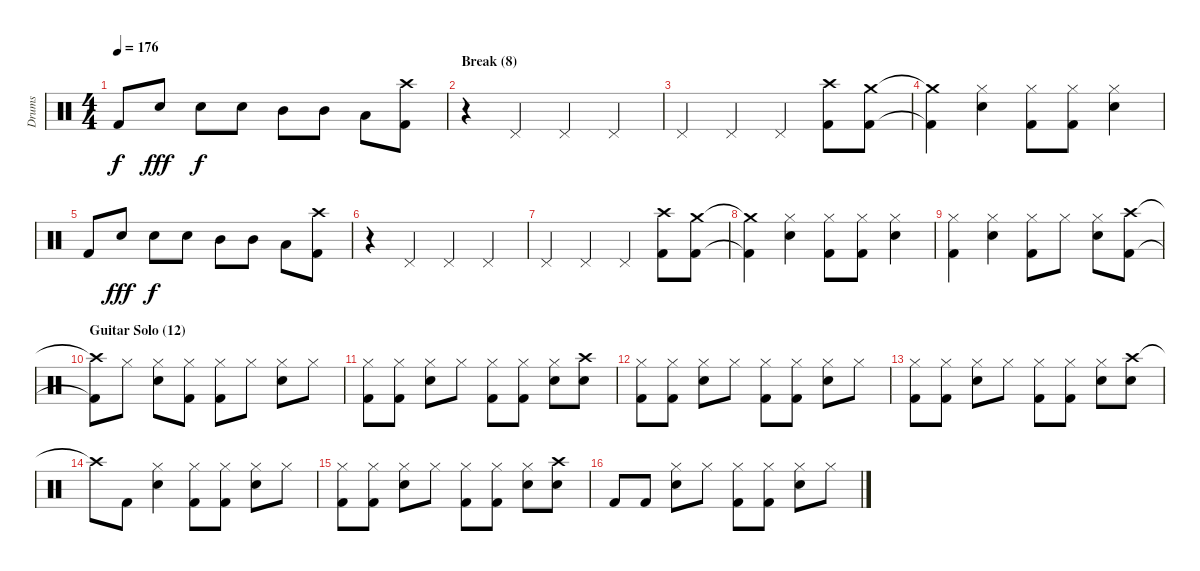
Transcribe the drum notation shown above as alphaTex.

\track ("Drums" "Drums") {instrument percussion}
\staff {score}
\articulation defaults
\ts (4 4)
\tempo 176
\clef neutral
\ks c "Kick (hit) 2".8{dy f} "Snare (hit) 2".8{dy fff} "Snare (hit) 2".8{dy f} "Snare (hit) 2".8 "Mid Tom (hit)".8 "Mid Tom (hit)".8 "Low Tom (hit)".8
("Crash high (hit)" "Kick (hit) 2").8 |
\section ("" "Break (8)")
r.4 "Pedal Hi-Hat (hit)".4 "Pedal Hi-Hat (hit)".4 "Pedal Hi-Hat (hit)".4 |
"Pedal Hi-Hat (hit)".4 "Pedal Hi-Hat (hit)".4 "Pedal Hi-Hat (hit)".4 ("Crash high (hit)" "Kick (hit) 2").8 ("Crash medium (hit)" "Kick (hit) 2").8 |
("Crash medium (hit)"{t} "Kick (hit) 2"{t}).4 ("Hi-Hat (closed)" "Snare (hit) 2").4 ("Hi-Hat (closed)" "Kick (hit) 2").8 ("Hi-Hat (closed)" "Kick (hit) 2").8 ("Hi-Hat (closed)" "Snare (hit) 2").4 |
"Kick (hit) 2".8 "Snare (hit) 2".8{dy fff} "Snare (hit) 2".8{dy f} "Snare (hit) 2".8 "Mid Tom (hit)".8 "Mid Tom (hit)".8 "Low Tom (hit)".8 ("Crash high (hit)" "Kick (hit) 2").8 |
r.4 "Pedal Hi-Hat (hit)".4 "Pedal Hi-Hat (hit)".4 "Pedal Hi-Hat (hit)".4 |
"Pedal Hi-Hat (hit)".4 "Pedal Hi-Hat (hit)".4 "Pedal Hi-Hat (hit)".4 ("Crash high (hit)" "Kick (hit) 2").8 ("Crash medium (hit)" "Kick (hit) 2").8 |
("Crash medium (hit)"{t} "Kick (hit) 2"{t}).4 ("Hi-Hat (closed)" "Snare (hit) 2").4 ("Hi-Hat (closed)" "Kick (hit) 2").8 ("Hi-Hat (closed)" "Kick (hit) 2").8 ("Hi-Hat (closed)" "Snare (hit) 2").4 |
("Hi-Hat (closed)" "Kick (hit) 2").4 ("Hi-Hat (closed)" "Snare (hit) 2").4 ("Hi-Hat (closed)" "Kick (hit) 2").8 "Hi-Hat (closed)".8 ("Hi-Hat (closed)" "Snare (hit) 2").8 ("Crash high (hit)" "Kick (hit) 2").8 |
\section ("" "Guitar Solo (12)")
("Crash high (hit)"{t} "Kick (hit) 2"{t}).8 "Hi-Hat (closed)".8 ("Hi-Hat (closed)" "Snare (hit) 2").8 ("Hi-Hat (closed)" "Kick (hit) 2").8 ("Hi-Hat (closed)" "Kick (hit) 2").8 "Hi-Hat (closed)".8 ("Hi-Hat (closed)" "Snare (hit) 2").8 "Hi-Hat (closed)".8 |
("Hi-Hat (closed)" "Kick (hit) 2").8 ("Hi-Hat (closed)" "Kick (hit) 2").8 ("Hi-Hat (closed)" "Snare (hit) 2").8 "Hi-Hat (closed)".8 ("Hi-Hat (closed)" "Kick (hit) 2").8 ("Hi-Hat (closed)" "Kick (hit) 2").8 ("Hi-Hat (closed)" "Snare (hit) 2").8 ("Crash high (hit)" "Snare (hit) 2").8 |
("Hi-Hat (closed)" "Kick (hit) 2").8 ("Hi-Hat (closed)" "Kick (hit) 2").8 ("Hi-Hat (closed)" "Snare (hit) 2").8 "Hi-Hat (closed)".8 ("Hi-Hat (closed)" "Kick (hit) 2").8 ("Hi-Hat (closed)" "Kick (hit) 2").8 ("Hi-Hat (closed)" "Snare (hit) 2").8 "Hi-Hat (closed)".8 |
("Hi-Hat (closed)" "Kick (hit) 2").8 ("Hi-Hat (closed)" "Kick (hit) 2").8 ("Hi-Hat (closed)" "Snare (hit) 2").8 "Hi-Hat (closed)".8 ("Hi-Hat (closed)" "Kick (hit) 2").8 ("Hi-Hat (closed)" "Kick (hit) 2").8 ("Hi-Hat (closed)" "Snare (hit) 2").8 ("Crash high (hit)" "Snare (hit) 2").8 |
"Crash high (hit)"{t}.8 "Kick (hit) 2".8 ("Hi-Hat (closed)" "Snare (hit) 2").4 ("Hi-Hat (closed)" "Kick (hit) 2").8 ("Hi-Hat (closed)" "Kick (hit) 2").8 ("Hi-Hat (closed)" "Snare (hit) 2").8 "Hi-Hat (closed)".8 |
("Hi-Hat (closed)" "Kick (hit) 2").8 ("Hi-Hat (closed)" "Kick (hit) 2").8 ("Hi-Hat (closed)" "Snare (hit) 2").8 "Hi-Hat (closed)".8 ("Hi-Hat (closed)" "Kick (hit) 2").8 ("Hi-Hat (closed)" "Kick (hit) 2").8 ("Hi-Hat (closed)" "Snare (hit) 2").8 ("Crash high (hit)" "Snare (hit) 2").8 |
"Kick (hit) 2".8 "Kick (hit) 2".8 ("Hi-Hat (closed)" "Snare (hit) 2").8 "Hi-Hat (closed)".8 ("Hi-Hat (closed)" "Kick (hit) 2").8 ("Hi-Hat (closed)" "Kick (hit) 2").8 ("Hi-Hat (closed)" "Snare (hit) 2").8 "Hi-Hat (closed)".8
